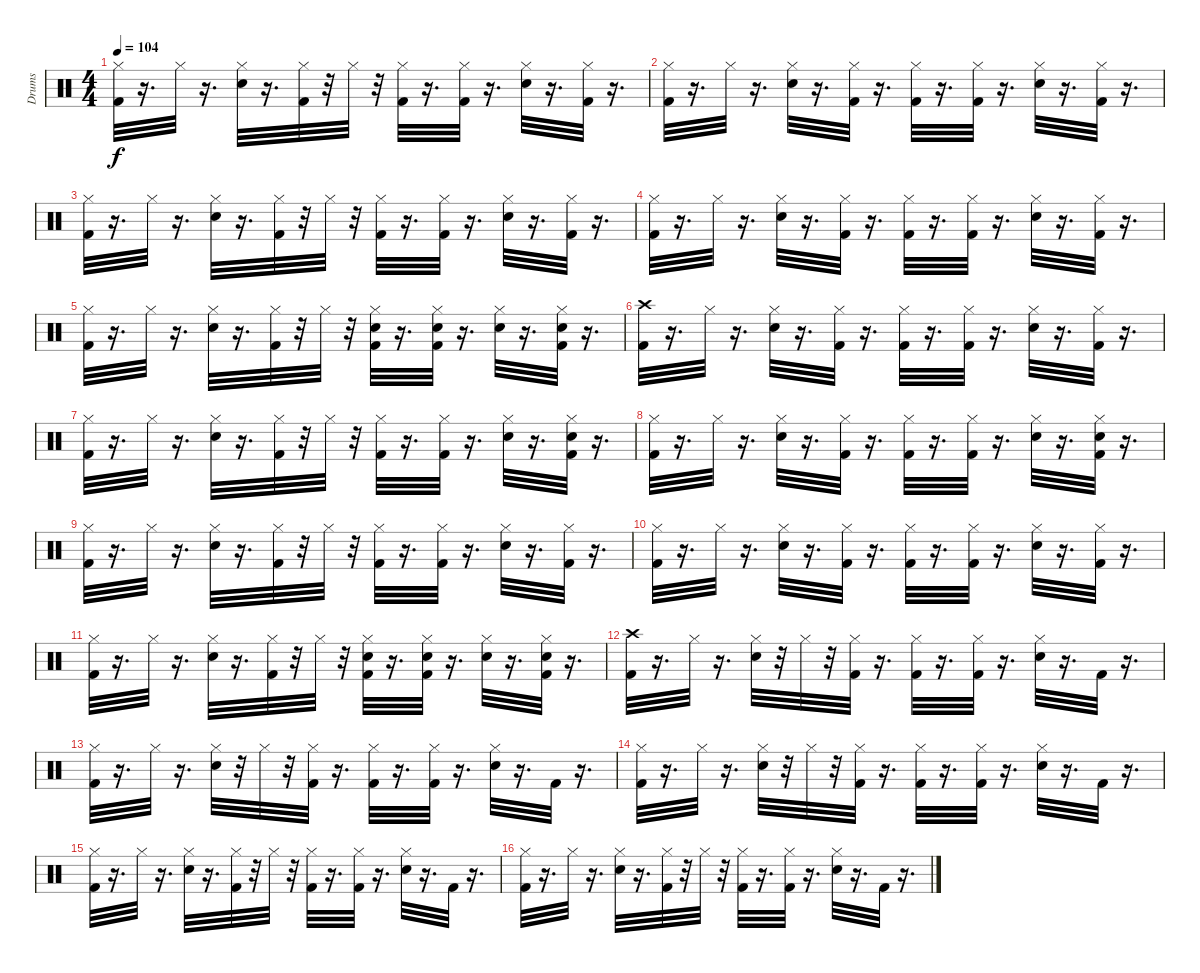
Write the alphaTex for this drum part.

\track ("Drums" "Drums") {instrument percussion}
\staff {score}
\articulation defaults
\ts (4 4)
\tempo 104
\clef neutral
\ks c
("Hi-Hat (closed)" "Kick (hit) 2").32{dy f} r.16{d} "Hi-Hat (closed)".32 r.16{d} ("Hi-Hat (closed)" "Snare (hit) 2").32 r.16{d} ("Hi-Hat (closed)" "Kick (hit) 2").32 r.32 "Hi-Hat (closed)".32 r.32 ("Hi-Hat (closed)" "Kick (hit) 2").32 r.16{d} ("Hi-Hat (closed)" "Kick (hit) 2").32 r.16{d} ("Hi-Hat (closed)" "Snare (hit) 2").32 r.16{d} ("Hi-Hat (closed)" "Kick (hit) 2").32 r.16{d} |
("Hi-Hat (closed)" "Kick (hit) 2").32 r.16{d} "Hi-Hat (closed)".32 r.16{d} ("Hi-Hat (closed)" "Snare (hit) 2").32 r.16{d} ("Hi-Hat (closed)" "Kick (hit) 2").32 r.16{d} ("Hi-Hat (closed)" "Kick (hit) 2").32 r.16{d} ("Hi-Hat (closed)" "Kick (hit) 2").32 r.16{d} ("Hi-Hat (closed)" "Snare (hit) 2").32 r.16{d} ("Hi-Hat (closed)" "Kick (hit) 2").32 r.16{d} |
("Hi-Hat (closed)" "Kick (hit) 2").32 r.16{d} "Hi-Hat (closed)".32 r.16{d} ("Hi-Hat (closed)" "Snare (hit) 2").32 r.16{d} ("Hi-Hat (closed)" "Kick (hit) 2").32 r.32 "Hi-Hat (closed)".32 r.32 ("Hi-Hat (closed)" "Kick (hit) 2").32 r.16{d} ("Hi-Hat (closed)" "Kick (hit) 2").32 r.16{d} ("Hi-Hat (closed)" "Snare (hit) 2").32 r.16{d} ("Hi-Hat (closed)" "Kick (hit) 2").32 r.16{d} |
("Hi-Hat (closed)" "Kick (hit) 2").32 r.16{d} "Hi-Hat (closed)".32 r.16{d} ("Hi-Hat (closed)" "Snare (hit) 2").32 r.16{d} ("Hi-Hat (closed)" "Kick (hit) 2").32 r.16{d} ("Hi-Hat (closed)" "Kick (hit) 2").32 r.16{d} ("Hi-Hat (closed)" "Kick (hit) 2").32 r.16{d} ("Hi-Hat (closed)" "Snare (hit) 2").32 r.16{d} ("Hi-Hat (closed)" "Kick (hit) 2").32 r.16{d} |
("Hi-Hat (closed)" "Kick (hit) 2").32 r.16{d} "Hi-Hat (closed)".32 r.16{d} ("Hi-Hat (closed)" "Snare (hit) 2").32 r.16{d} ("Hi-Hat (closed)" "Kick (hit) 2").32 r.32 "Hi-Hat (closed)".32 r.32 ("Snare (hit) 2" "Hi-Hat (closed)" "Kick (hit) 2").32 r.16{d} ("Snare (hit) 2" "Hi-Hat (closed)" "Kick (hit) 2").32 r.16{d} ("Hi-Hat (closed)" "Snare (hit) 2").32 r.16{d} ("Snare (hit) 2" "Hi-Hat (closed)" "Kick (hit) 2").32 r.16{d} |
("Crash high (hit)" "Kick (hit) 2").32 r.16{d} "Hi-Hat (closed)".32 r.16{d} ("Hi-Hat (closed)" "Snare (hit) 2").32 r.16{d} ("Hi-Hat (closed)" "Kick (hit) 2").32 r.16{d} ("Hi-Hat (closed)" "Kick (hit) 2").32 r.16{d} ("Hi-Hat (closed)" "Kick (hit) 2").32 r.16{d} ("Hi-Hat (closed)" "Snare (hit) 2").32 r.16{d} ("Hi-Hat (closed)" "Kick (hit) 2").32 r.16{d} |
("Hi-Hat (closed)" "Kick (hit) 2").32 r.16{d} "Hi-Hat (closed)".32 r.16{d} ("Hi-Hat (closed)" "Snare (hit) 2").32 r.16{d} ("Hi-Hat (closed)" "Kick (hit) 2").32 r.32 "Hi-Hat (closed)".32 r.32 ("Hi-Hat (closed)" "Kick (hit) 2").32 r.16{d} ("Hi-Hat (closed)" "Kick (hit) 2").32 r.16{d} ("Hi-Hat (closed)" "Snare (hit) 2").32 r.16{d} ("Snare (hit) 2" "Hi-Hat (closed)" "Kick (hit) 2").32 r.16{d} |
("Hi-Hat (closed)" "Kick (hit) 2").32 r.16{d} "Hi-Hat (closed)".32 r.16{d} ("Hi-Hat (closed)" "Snare (hit) 2").32 r.16{d} ("Hi-Hat (closed)" "Kick (hit) 2").32 r.16{d} ("Hi-Hat (closed)" "Kick (hit) 2").32 r.16{d} ("Hi-Hat (closed)" "Kick (hit) 2").32 r.16{d} ("Hi-Hat (closed)" "Snare (hit) 2").32 r.16{d} ("Snare (hit) 2" "Hi-Hat (closed)" "Kick (hit) 2").32 r.16{d} |
("Hi-Hat (closed)" "Kick (hit) 2").32 r.16{d} "Hi-Hat (closed)".32 r.16{d} ("Hi-Hat (closed)" "Snare (hit) 2").32 r.16{d} ("Hi-Hat (closed)" "Kick (hit) 2").32 r.32 "Hi-Hat (closed)".32 r.32 ("Hi-Hat (closed)" "Kick (hit) 2").32 r.16{d} ("Hi-Hat (closed)" "Kick (hit) 2").32 r.16{d} ("Hi-Hat (closed)" "Snare (hit) 2").32 r.16{d} ("Hi-Hat (closed)" "Kick (hit) 2").32 r.16{d} |
("Hi-Hat (closed)" "Kick (hit) 2").32 r.16{d} "Hi-Hat (closed)".32 r.16{d} ("Hi-Hat (closed)" "Snare (hit) 2").32 r.16{d} ("Hi-Hat (closed)" "Kick (hit) 2").32 r.16{d} ("Hi-Hat (closed)" "Kick (hit) 2").32 r.16{d} ("Hi-Hat (closed)" "Kick (hit) 2").32 r.16{d} ("Hi-Hat (closed)" "Snare (hit) 2").32 r.16{d} ("Hi-Hat (closed)" "Kick (hit) 2").32 r.16{d} |
("Hi-Hat (closed)" "Kick (hit) 2").32 r.16{d} "Hi-Hat (closed)".32 r.16{d} ("Hi-Hat (closed)" "Snare (hit) 2").32 r.16{d} ("Hi-Hat (closed)" "Kick (hit) 2").32 r.32 "Hi-Hat (closed)".32 r.32 ("Snare (hit) 2" "Hi-Hat (closed)" "Kick (hit) 2").32 r.16{d} ("Hi-Hat (closed)" "Kick (hit) 2" "Snare (hit) 2").32 r.16{d} ("Hi-Hat (closed)" "Snare (hit) 2").32 r.16{d} ("Snare (hit) 2" "Hi-Hat (closed)" "Kick (hit) 2").32 r.16{d} |
("Crash high (hit)" "Kick (hit) 2").32 r.16{d} "Hi-Hat (closed)".32 r.16{d} ("Hi-Hat (closed)" "Snare (hit) 2").32 r.32 "Hi-Hat (closed)".32 r.32 ("Hi-Hat (closed)" "Kick (hit) 2").32 r.16{d} ("Hi-Hat (closed)" "Kick (hit) 2").32 r.16{d} ("Hi-Hat (closed)" "Kick (hit) 2").32 r.16{d} ("Hi-Hat (closed)" "Snare (hit) 2").32 r.16{d} "Kick (hit) 2".32 r.16{d} |
("Hi-Hat (closed)" "Kick (hit) 2").32 r.16{d} "Hi-Hat (closed)".32 r.16{d} ("Hi-Hat (closed)" "Snare (hit) 2").32 r.32 "Hi-Hat (closed)".32 r.32 ("Hi-Hat (closed)" "Kick (hit) 2").32 r.16{d} ("Hi-Hat (closed)" "Kick (hit) 2").32 r.16{d} ("Hi-Hat (closed)" "Kick (hit) 2").32 r.16{d} ("Hi-Hat (closed)" "Snare (hit) 2").32 r.16{d} "Kick (hit) 2".32 r.16{d} |
("Hi-Hat (closed)" "Kick (hit) 2").32 r.16{d} "Hi-Hat (closed)".32 r.16{d} ("Hi-Hat (closed)" "Snare (hit) 2").32 r.32 "Hi-Hat (closed)".32 r.32 ("Hi-Hat (closed)" "Kick (hit) 2").32 r.16{d} ("Hi-Hat (closed)" "Kick (hit) 2").32 r.16{d} ("Hi-Hat (closed)" "Kick (hit) 2").32 r.16{d} ("Hi-Hat (closed)" "Snare (hit) 2").32 r.16{d} "Kick (hit) 2".32 r.16{d} |
("Hi-Hat (closed)" "Kick (hit) 2").32 r.16{d} "Hi-Hat (closed)".32 r.16{d} ("Hi-Hat (closed)" "Snare (hit) 2").32 r.16{d} ("Hi-Hat (closed)" "Kick (hit) 2").32 r.32 "Hi-Hat (closed)".32 r.32 ("Hi-Hat (closed)" "Kick (hit) 2").32 r.16{d} ("Hi-Hat (closed)" "Kick (hit) 2").32 r.16{d} ("Hi-Hat (closed)" "Snare (hit) 2").32 r.16{d} "Kick (hit) 2".32 r.16{d} |
("Hi-Hat (closed)" "Kick (hit) 2").32 r.16{d} "Hi-Hat (closed)".32 r.16{d} ("Hi-Hat (closed)" "Snare (hit) 2").32 r.16{d} ("Hi-Hat (closed)" "Kick (hit) 2").32 r.32 "Hi-Hat (closed)".32 r.32 ("Hi-Hat (closed)" "Kick (hit) 2").32 r.16{d} ("Hi-Hat (closed)" "Kick (hit) 2").32 r.16{d} ("Hi-Hat (closed)" "Snare (hit) 2").32 r.16{d} "Kick (hit) 2".32 r.16{d}
